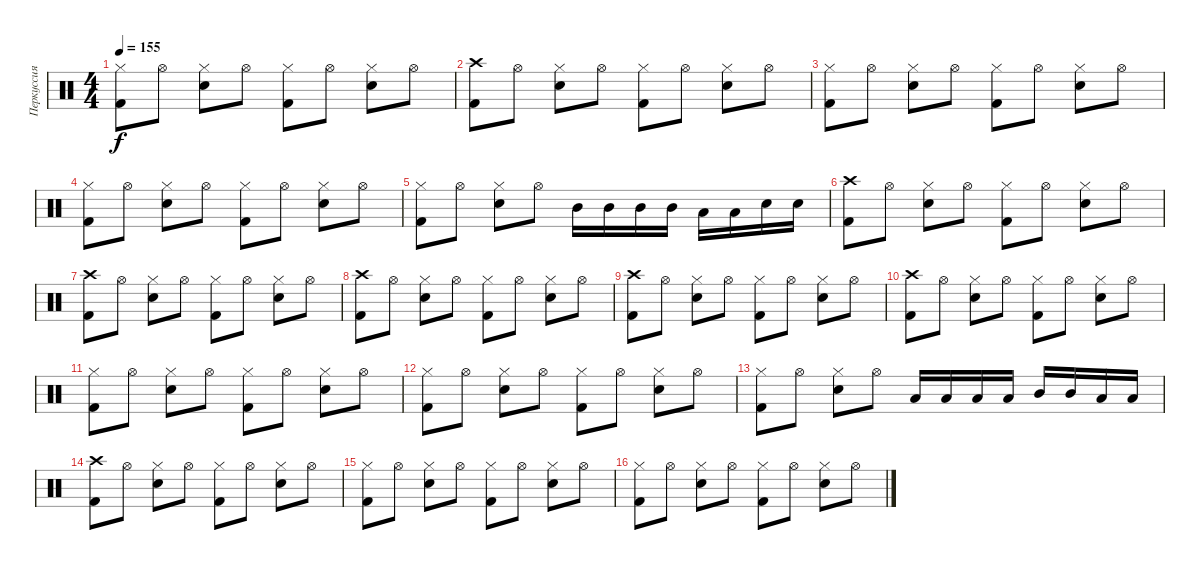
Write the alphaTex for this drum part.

\track ("Перкуссия" "Перкуссия") {instrument percussion}
\staff {score}
\articulation defaults
\ts (4 4)
\tempo 155
\clef neutral
\ks c
("Hi-Hat (closed)" "Kick (hit) 2").8{dy f} "Hi-Hat (open)".8 ("Hi-Hat (closed)" "Snare (hit) 2").8 "Hi-Hat (open)".8 ("Hi-Hat (closed)" "Kick (hit) 2").8 "Hi-Hat (open)".8 ("Hi-Hat (closed)" "Snare (hit) 2").8 "Hi-Hat (open)".8 |
("Crash high (hit)" "Kick (hit) 2").8 "Hi-Hat (open)".8 ("Hi-Hat (closed)" "Snare (hit) 2").8 "Hi-Hat (open)".8 ("Hi-Hat (closed)" "Kick (hit) 2").8 "Hi-Hat (open)".8 ("Hi-Hat (closed)" "Snare (hit) 2").8 "Hi-Hat (open)".8 |
("Hi-Hat (closed)" "Kick (hit) 2").8 "Hi-Hat (open)".8 ("Hi-Hat (closed)" "Snare (hit) 2").8 "Hi-Hat (open)".8 ("Hi-Hat (closed)" "Kick (hit) 2").8 "Hi-Hat (open)".8 ("Hi-Hat (closed)" "Snare (hit) 2").8 "Hi-Hat (open)".8 |
("Hi-Hat (closed)" "Kick (hit) 2").8 "Hi-Hat (open)".8 ("Hi-Hat (closed)" "Snare (hit) 2").8 "Hi-Hat (open)".8 ("Hi-Hat (closed)" "Kick (hit) 2").8 "Hi-Hat (open)".8 ("Hi-Hat (closed)" "Snare (hit) 2").8 "Hi-Hat (open)".8 |
("Hi-Hat (closed)" "Kick (hit) 2").8 "Hi-Hat (open)".8 ("Hi-Hat (closed)" "Snare (hit) 2").8 "Hi-Hat (open)".8 "Mid Tom (hit)".16 "Mid Tom (hit)".16 "Mid Tom (hit)".16 "Mid Tom (hit)".16 "Low Tom (hit)".16 "Low Tom (hit)".16 "Snare (hit) 2".16 "Snare (hit) 2".16 |
("Crash high (hit)" "Kick (hit) 2").8 "Hi-Hat (open)".8 ("Hi-Hat (closed)" "Snare (hit) 2").8 "Hi-Hat (open)".8 ("Hi-Hat (closed)" "Kick (hit) 2").8 "Hi-Hat (open)".8 ("Hi-Hat (closed)" "Snare (hit) 2").8 "Hi-Hat (open)".8 |
("Crash high (hit)" "Kick (hit) 2").8 "Hi-Hat (open)".8 ("Hi-Hat (closed)" "Snare (hit) 2").8 "Hi-Hat (open)".8 ("Hi-Hat (closed)" "Kick (hit) 2").8 "Hi-Hat (open)".8 ("Hi-Hat (closed)" "Snare (hit) 2").8 "Hi-Hat (open)".8 |
("Crash high (hit)" "Kick (hit) 2").8 "Hi-Hat (open)".8 ("Hi-Hat (closed)" "Snare (hit) 2").8 "Hi-Hat (open)".8 ("Hi-Hat (closed)" "Kick (hit) 2").8 "Hi-Hat (open)".8 ("Hi-Hat (closed)" "Snare (hit) 2").8 "Hi-Hat (open)".8 |
("Crash high (hit)" "Kick (hit) 2").8 "Hi-Hat (open)".8 ("Hi-Hat (closed)" "Snare (hit) 2").8 "Hi-Hat (open)".8 ("Hi-Hat (closed)" "Kick (hit) 2").8 "Hi-Hat (open)".8 ("Hi-Hat (closed)" "Snare (hit) 2").8 "Hi-Hat (open)".8 |
("Crash high (hit)" "Kick (hit) 2").8 "Hi-Hat (open)".8 ("Hi-Hat (closed)" "Snare (hit) 2").8 "Hi-Hat (open)".8 ("Hi-Hat (closed)" "Kick (hit) 2").8 "Hi-Hat (open)".8 ("Hi-Hat (closed)" "Snare (hit) 2").8 "Hi-Hat (open)".8 |
("Hi-Hat (closed)" "Kick (hit) 2").8 "Hi-Hat (open)".8 ("Hi-Hat (closed)" "Snare (hit) 2").8 "Hi-Hat (open)".8 ("Hi-Hat (closed)" "Kick (hit) 2").8 "Hi-Hat (open)".8 ("Hi-Hat (closed)" "Snare (hit) 2").8 "Hi-Hat (open)".8 |
("Hi-Hat (closed)" "Kick (hit) 2").8 "Hi-Hat (open)".8 ("Hi-Hat (closed)" "Snare (hit) 2").8 "Hi-Hat (open)".8 ("Hi-Hat (closed)" "Kick (hit) 2").8 "Hi-Hat (open)".8 ("Hi-Hat (closed)" "Snare (hit) 2").8 "Hi-Hat (open)".8 |
("Hi-Hat (closed)" "Kick (hit) 2").8 "Hi-Hat (open)".8 ("Hi-Hat (closed)" "Snare (hit) 2").8 "Hi-Hat (open)".8 "Low Tom (hit)".16 "Low Tom (hit)".16 "Low Tom (hit)".16 "Low Tom (hit)".16 "Mid Tom (hit)".16 "Mid Tom (hit)".16 "Low Tom (hit)".16 "Low Tom (hit)".16 |
("Crash high (hit)" "Kick (hit) 2").8 "Hi-Hat (open)".8 ("Hi-Hat (closed)" "Snare (hit) 2").8 "Hi-Hat (open)".8 ("Hi-Hat (closed)" "Kick (hit) 2").8 "Hi-Hat (open)".8 ("Hi-Hat (closed)" "Snare (hit) 2").8 "Hi-Hat (open)".8 |
("Hi-Hat (closed)" "Kick (hit) 2").8 "Hi-Hat (open)".8 ("Hi-Hat (closed)" "Snare (hit) 2").8 "Hi-Hat (open)".8 ("Hi-Hat (closed)" "Kick (hit) 2").8 "Hi-Hat (open)".8 ("Hi-Hat (closed)" "Snare (hit) 2").8 "Hi-Hat (open)".8 |
("Hi-Hat (closed)" "Kick (hit) 2").8 "Hi-Hat (open)".8 ("Hi-Hat (closed)" "Snare (hit) 2").8 "Hi-Hat (open)".8 ("Hi-Hat (closed)" "Kick (hit) 2").8 "Hi-Hat (open)".8 ("Hi-Hat (closed)" "Snare (hit) 2").8 "Hi-Hat (open)".8
